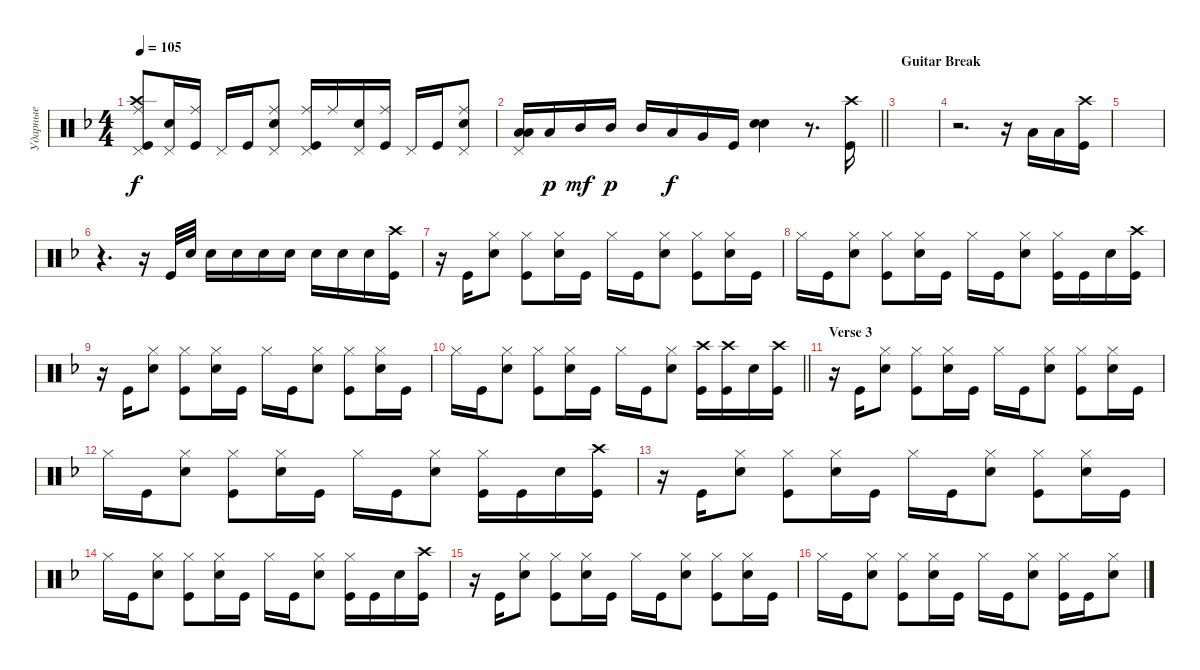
\track ("Ударные" "Ударные") {instrument percussion}
\staff {score}
\articulation defaults
\ts (4 4)
\tempo 105
\clef neutral
\ks dminor
("Kick (hit)" "Crash high (hit)" "Ride (middle)" "Pedal Hi-Hat (hit)").8{dy f} ("Snare (hit) 2" "Pedal Hi-Hat (hit)").16 ("Ride (middle)" "Kick (hit)").16 "Pedal Hi-Hat (hit)".16 "Kick (hit)".16 ("Snare (hit) 2" "Ride (middle)" "Pedal Hi-Hat (hit)").8 ("Ride (middle)" "Kick (hit)" "Pedal Hi-Hat (hit)").16 "Ride (middle)".16 ("Snare (hit) 2" "Pedal Hi-Hat (hit)").16 ("Kick (hit)" "Ride (middle)").16 "Pedal Hi-Hat (hit)".16 "Kick (hit)".16 ("Snare (hit) 2" "Ride (middle)" "Pedal Hi-Hat (hit)").8 |
\barLineRight lightlight
("Low Tom (hit)" "Low Tom (hit)" "Pedal Hi-Hat (hit)").16{bd 240} "Low Tom (hit)".16{dy p} "Mid Tom (hit)".16{dy mf} "Mid Tom (hit)".16{dy p} "Mid Tom (hit)".16 "Low Tom (hit)".16{dy f} "Very Low Tom (hit)".16 "Kick (hit)".16 ("Snare (hit) 2" "Snare (hit) 2").4{bd 240} r.8{d} ("Kick (hit)" "Crash high (hit)").16 |
\section ("" "Guitar Break")
|
r.2{d} r.16 "Low Tom (hit)".16 "Low Tom (hit)".16 ("Kick (hit)" "Crash high (hit)").16 |
|
r.4{d} r.16 "Kick (hit)".32 "Snare (hit) 2".32 "Snare (hit) 2".16 "Snare (hit) 2".16 "Snare (hit) 2".16 "Snare (hit) 2".16 "Snare (hit) 2".16 "Snare (hit) 2".16 "Snare (hit) 2".16 ("Kick (hit)" "Crash high (hit)").16 |
r.16 "Kick (hit)".16 ("Snare (hit) 2" "Hi-Hat (closed)").8 ("Hi-Hat (closed)" "Kick (hit)").8 ("Snare (hit) 2" "Hi-Hat (closed)").16 "Kick (hit)".16 "Hi-Hat (closed)".16 "Kick (hit)".16 ("Snare (hit) 2" "Hi-Hat (closed)").8 ("Hi-Hat (closed)" "Kick (hit)").8 ("Snare (hit) 2" "Hi-Hat (closed)").16 "Kick (hit)".16 |
"Hi-Hat (closed)".16 "Kick (hit)".16 ("Snare (hit) 2" "Hi-Hat (closed)").8 ("Hi-Hat (closed)" "Kick (hit)").8 ("Snare (hit) 2" "Hi-Hat (closed)").16 "Kick (hit)".16 "Hi-Hat (closed)".16 "Kick (hit)".16 ("Snare (hit) 2" "Hi-Hat (closed)").8 ("Hi-Hat (closed)" "Kick (hit)").16 "Kick (hit)".16 "Snare (hit) 2".16 ("Kick (hit)" "Crash high (hit)").16 |
r.16 "Kick (hit)".16 ("Snare (hit) 2" "Hi-Hat (closed)").8 ("Hi-Hat (closed)" "Kick (hit)").8 ("Snare (hit) 2" "Hi-Hat (closed)").16 "Kick (hit)".16 "Hi-Hat (closed)".16 "Kick (hit)".16 ("Snare (hit) 2" "Hi-Hat (closed)").8 ("Hi-Hat (closed)" "Kick (hit)").8 ("Snare (hit) 2" "Hi-Hat (closed)").16 "Kick (hit)".16 |
\barLineRight lightlight "Hi-Hat (closed)".16 "Kick (hit)".16
("Snare (hit) 2" "Hi-Hat (closed)").8 ("Hi-Hat (closed)" "Kick (hit)").8 ("Snare (hit) 2" "Hi-Hat (closed)").16 "Kick (hit)".16 "Hi-Hat (closed)".16 "Kick (hit)".16 ("Snare (hit) 2" "Hi-Hat (closed)").8 ("Crash high (hit)" "Kick (hit)").16 ("Kick (hit)" "Crash high (hit)").16 "Snare (hit) 2".16 ("Kick (hit)" "Crash high (hit)").16 |
\section ("" "Verse 3")
r.16 "Kick (hit)".16 ("Snare (hit) 2" "Hi-Hat (closed)").8 ("Hi-Hat (closed)" "Kick (hit)").8 ("Snare (hit) 2" "Hi-Hat (closed)").16 "Kick (hit)".16 "Hi-Hat (closed)".16 "Kick (hit)".16 ("Snare (hit) 2" "Hi-Hat (closed)").8 ("Hi-Hat (closed)" "Kick (hit)").8 ("Snare (hit) 2" "Hi-Hat (closed)").16 "Kick (hit)".16 |
"Hi-Hat (closed)".16 "Kick (hit)".16 ("Snare (hit) 2" "Hi-Hat (closed)").8 ("Hi-Hat (closed)" "Kick (hit)").8 ("Snare (hit) 2" "Hi-Hat (closed)").16 "Kick (hit)".16 "Hi-Hat (closed)".16 "Kick (hit)".16 ("Snare (hit) 2" "Hi-Hat (closed)").8 ("Hi-Hat (closed)" "Kick (hit)").16 "Kick (hit)".16 "Snare (hit) 2".16 ("Kick (hit)" "Crash high (hit)").16 |
r.16 "Kick (hit)".16 ("Snare (hit) 2" "Hi-Hat (closed)").8 ("Hi-Hat (closed)" "Kick (hit)").8 ("Snare (hit) 2" "Hi-Hat (closed)").16 "Kick (hit)".16 "Hi-Hat (closed)".16 "Kick (hit)".16 ("Snare (hit) 2" "Hi-Hat (closed)").8 ("Hi-Hat (closed)" "Kick (hit)").8 ("Snare (hit) 2" "Hi-Hat (closed)").16 "Kick (hit)".16 |
"Hi-Hat (closed)".16 "Kick (hit)".16 ("Snare (hit) 2" "Hi-Hat (closed)").8 ("Hi-Hat (closed)" "Kick (hit)").8 ("Snare (hit) 2" "Hi-Hat (closed)").16 "Kick (hit)".16 "Hi-Hat (closed)".16 "Kick (hit)".16 ("Snare (hit) 2" "Hi-Hat (closed)").8 ("Hi-Hat (closed)" "Kick (hit)").16 "Kick (hit)".16 "Snare (hit) 2".16 ("Kick (hit)" "Crash high (hit)").16 |
r.16 "Kick (hit)".16 ("Snare (hit) 2" "Hi-Hat (closed)").8 ("Hi-Hat (closed)" "Kick (hit)").8 ("Snare (hit) 2" "Hi-Hat (closed)").16 "Kick (hit)".16 "Hi-Hat (closed)".16 "Kick (hit)".16 ("Snare (hit) 2" "Hi-Hat (closed)").8 ("Hi-Hat (closed)" "Kick (hit)").8 ("Snare (hit) 2" "Hi-Hat (closed)").16 "Kick (hit)".16 |
"Hi-Hat (closed)".16 "Kick (hit)".16 ("Snare (hit) 2" "Hi-Hat (closed)").8 ("Hi-Hat (closed)" "Kick (hit)").8 ("Snare (hit) 2" "Hi-Hat (closed)").16 "Kick (hit)".16 "Hi-Hat (closed)".16 "Kick (hit)".16 ("Snare (hit) 2" "Hi-Hat (closed)").8 ("Hi-Hat (closed)" "Kick (hit)").16 "Kick (hit)".16 ("Snare (hit) 2" "Hi-Hat (closed)").8
